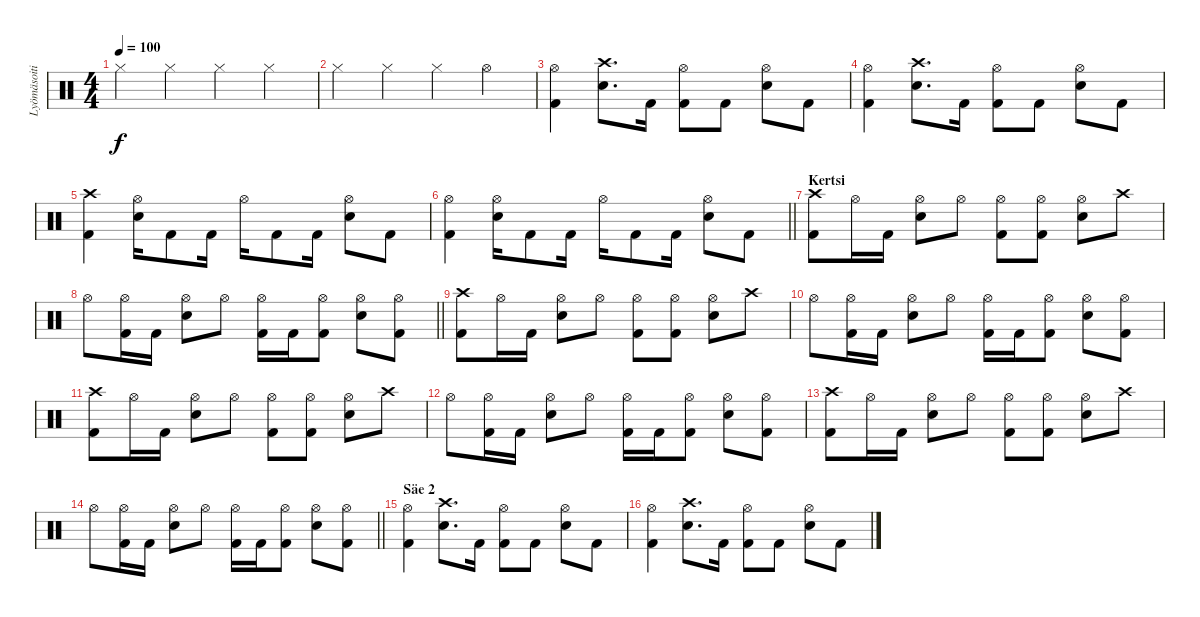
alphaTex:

\track ("Lyömäsoitin" "Lyömäsoiti") {instrument percussion}
\staff {score}
\articulation defaults
\ts (4 4)
\tempo 100
\clef neutral
\ks c "Hi-Hat (closed)".4{dy f} "Hi-Hat (closed)".4 "Hi-Hat (closed)".4 "Hi-Hat (closed)".4
|
"Hi-Hat (closed)".4 "Hi-Hat (closed)".4 "Hi-Hat (closed)".4 "Hi-Hat (open)".4 |
("Hi-Hat (open)" "Kick (hit) 2").4 ("Crash high (hit)" "Snare (hit) 2").8{d} "Kick (hit) 2".16 ("Hi-Hat (open)" "Kick (hit) 2").8 "Kick (hit) 2".8 ("Hi-Hat (open)" "Snare (hit) 2").8 "Kick (hit) 2".8 |
("Hi-Hat (open)" "Kick (hit) 2").4 ("Crash high (hit)" "Snare (hit) 2").8{d} "Kick (hit) 2".16 ("Hi-Hat (open)" "Kick (hit) 2").8 "Kick (hit) 2".8 ("Hi-Hat (open)" "Snare (hit) 2").8 "Kick (hit) 2".8 |
("Crash high (hit)" "Kick (hit) 2").4 ("Hi-Hat (open)" "Snare (hit) 2").16 "Kick (hit) 2".8 "Kick (hit) 2".16 "Hi-Hat (open)".16 "Kick (hit) 2".8 "Kick (hit) 2".16 ("Hi-Hat (open)" "Snare (hit) 2").8 "Kick (hit) 2".8 |
\barLineRight lightlight
("Hi-Hat (open)" "Kick (hit) 2").4 ("Hi-Hat (open)" "Snare (hit) 2").16 "Kick (hit) 2".8 "Kick (hit) 2".16 "Hi-Hat (open)".16 "Kick (hit) 2".8 "Kick (hit) 2".16 ("Hi-Hat (open)" "Snare (hit) 2").8 "Kick (hit) 2".8 |
\section ("" "Kertsi")
("Crash high (hit)" "Kick (hit) 2").8 "Hi-Hat (open)".16 "Kick (hit) 2".16 ("Hi-Hat (open)" "Snare (hit) 2").8 "Hi-Hat (open)".8 ("Hi-Hat (open)" "Kick (hit) 2").8 ("Hi-Hat (open)" "Kick (hit) 2").8 ("Hi-Hat (open)" "Snare (hit) 2").8 "Crash high (hit)".8 |
\barLineRight lightlight "Hi-Hat (open)".8
("Hi-Hat (open)" "Kick (hit) 2").16 "Kick (hit) 2".16 ("Hi-Hat (open)" "Snare (hit) 2").8 "Hi-Hat (open)".8 ("Hi-Hat (open)" "Kick (hit) 2").16 "Kick (hit) 2".16 ("Hi-Hat (open)" "Kick (hit) 2").8 ("Hi-Hat (open)" "Snare (hit) 2").8 ("Hi-Hat (open)" "Kick (hit) 2").8 |
("Crash high (hit)" "Kick (hit) 2").8 "Hi-Hat (open)".16 "Kick (hit) 2".16 ("Hi-Hat (open)" "Snare (hit) 2").8 "Hi-Hat (open)".8 ("Hi-Hat (open)" "Kick (hit) 2").8 ("Hi-Hat (open)" "Kick (hit) 2").8 ("Hi-Hat (open)" "Snare (hit) 2").8 "Crash high (hit)".8 |
"Hi-Hat (open)".8 ("Hi-Hat (open)" "Kick (hit) 2").16 "Kick (hit) 2".16 ("Hi-Hat (open)" "Snare (hit) 2").8 "Hi-Hat (open)".8 ("Hi-Hat (open)" "Kick (hit) 2").16 "Kick (hit) 2".16 ("Hi-Hat (open)" "Kick (hit) 2").8 ("Hi-Hat (open)" "Snare (hit) 2").8 ("Hi-Hat (open)" "Kick (hit) 2").8 |
("Crash high (hit)" "Kick (hit) 2").8 "Hi-Hat (open)".16 "Kick (hit) 2".16 ("Hi-Hat (open)" "Snare (hit) 2").8 "Hi-Hat (open)".8 ("Hi-Hat (open)" "Kick (hit) 2").8 ("Hi-Hat (open)" "Kick (hit) 2").8 ("Hi-Hat (open)" "Snare (hit) 2").8 "Crash high (hit)".8 |
"Hi-Hat (open)".8 ("Hi-Hat (open)" "Kick (hit) 2").16 "Kick (hit) 2".16 ("Hi-Hat (open)" "Snare (hit) 2").8 "Hi-Hat (open)".8 ("Hi-Hat (open)" "Kick (hit) 2").16 "Kick (hit) 2".16 ("Hi-Hat (open)" "Kick (hit) 2").8 ("Hi-Hat (open)" "Snare (hit) 2").8 ("Hi-Hat (open)" "Kick (hit) 2").8 |
("Crash high (hit)" "Kick (hit) 2").8 "Hi-Hat (open)".16 "Kick (hit) 2".16 ("Hi-Hat (open)" "Snare (hit) 2").8 "Hi-Hat (open)".8 ("Hi-Hat (open)" "Kick (hit) 2").8 ("Hi-Hat (open)" "Kick (hit) 2").8 ("Hi-Hat (open)" "Snare (hit) 2").8 "Crash high (hit)".8 |
\barLineRight lightlight "Hi-Hat (open)".8
("Hi-Hat (open)" "Kick (hit) 2").16 "Kick (hit) 2".16 ("Hi-Hat (open)" "Snare (hit) 2").8 "Hi-Hat (open)".8 ("Hi-Hat (open)" "Kick (hit) 2").16 "Kick (hit) 2".16 ("Hi-Hat (open)" "Kick (hit) 2").8 ("Hi-Hat (open)" "Snare (hit) 2").8 ("Hi-Hat (open)" "Kick (hit) 2").8 |
\section ("" "Säe 2")
("Hi-Hat (open)" "Kick (hit) 2").4 ("Crash high (hit)" "Snare (hit) 2").8{d} "Kick (hit) 2".16 ("Hi-Hat (open)" "Kick (hit) 2").8 "Kick (hit) 2".8 ("Hi-Hat (open)" "Snare (hit) 2").8 "Kick (hit) 2".8 |
("Hi-Hat (open)" "Kick (hit) 2").4 ("Crash high (hit)" "Snare (hit) 2").8{d} "Kick (hit) 2".16 ("Hi-Hat (open)" "Kick (hit) 2").8 "Kick (hit) 2".8 ("Hi-Hat (open)" "Snare (hit) 2").8 "Kick (hit) 2".8
